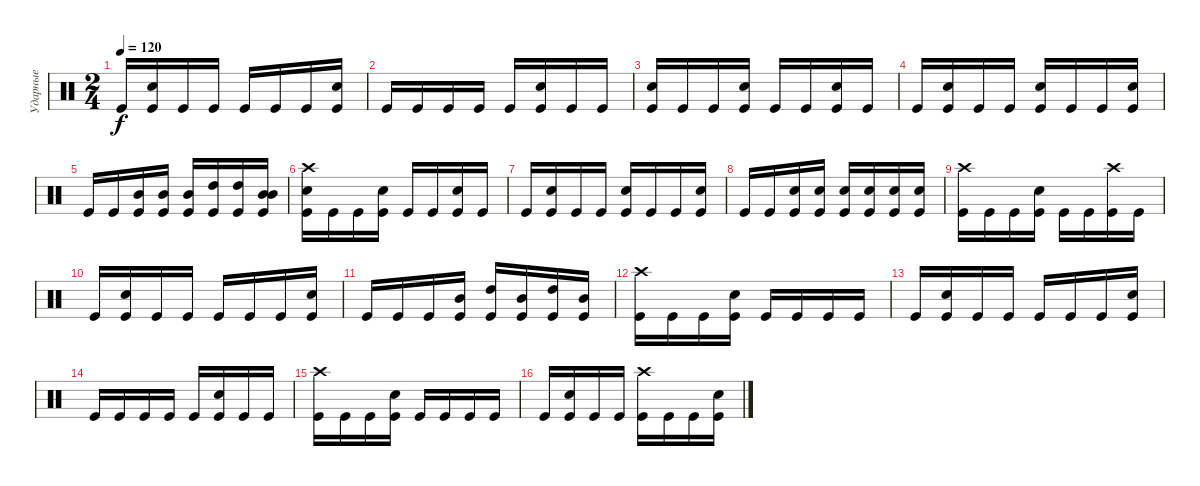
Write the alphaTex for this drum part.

\track ("Ударные" "Ударные") {instrument percussion}
\staff {score}
\articulation defaults
\ts (2 4)
\tempo 120
\clef neutral
\ks c "Kick (hit)".16{dy f}
("Electric Snare (hit)" "Kick (hit)").16 "Kick (hit)".16 "Kick (hit)".16 "Kick (hit)".16 "Kick (hit)".16 "Kick (hit)".16 ("Electric Snare (hit)" "Kick (hit)").16 |
"Kick (hit)".16 "Kick (hit)".16 "Kick (hit)".16 "Kick (hit)".16 "Kick (hit)".16 ("Electric Snare (hit)" "Kick (hit)").16 "Kick (hit)".16 "Kick (hit)".16 |
("Electric Snare (hit)" "Kick (hit)").16 "Kick (hit)".16 "Kick (hit)".16 ("Electric Snare (hit)" "Kick (hit)").16 "Kick (hit)".16 "Kick (hit)".16 ("Electric Snare (hit)" "Kick (hit)").16 "Kick (hit)".16 |
"Kick (hit)".16 ("Electric Snare (hit)" "Kick (hit)").16 "Kick (hit)".16 "Kick (hit)".16 ("Electric Snare (hit)" "Kick (hit)").16 "Kick (hit)".16 "Kick (hit)".16 ("Electric Snare (hit)" "Kick (hit)").16 |
"Kick (hit)".16 "Kick (hit)".16 ("Mid Tom (hit)" "Kick (hit)").16 ("Mid Tom (hit)" "Kick (hit)").16 ("Mid Tom (hit)" "Kick (hit)").16 ("High Tom (hit)" "Kick (hit)").16 ("High Tom (hit)" "Kick (hit)").16 ("Mid Tom (hit)" "Mid Tom (hit)" "Kick (hit)").16 |
("Crash high (hit)" "Electric Snare (hit)" "Kick (hit)").16 "Kick (hit)".16 "Kick (hit)".16 ("Electric Snare (hit)" "Kick (hit)").16 "Kick (hit)".16 "Kick (hit)".16 ("Electric Snare (hit)" "Kick (hit)").16 "Kick (hit)".16 |
"Kick (hit)".16 ("Electric Snare (hit)" "Kick (hit)").16 "Kick (hit)".16 "Kick (hit)".16 ("Electric Snare (hit)" "Kick (hit)").16 "Kick (hit)".16 "Kick (hit)".16 ("Electric Snare (hit)" "Kick (hit)").16 |
"Kick (hit)".16 "Kick (hit)".16 ("Electric Snare (hit)" "Kick (hit)").16 ("Electric Snare (hit)" "Kick (hit)").16 ("Electric Snare (hit)" "Kick (hit)").16 ("Electric Snare (hit)" "Kick (hit)").16 ("Electric Snare (hit)" "Kick (hit)").16 ("Electric Snare (hit)" "Kick (hit)").16 |
("Crash high (hit)" "Kick (hit)").16 "Kick (hit)".16 "Kick (hit)".16 ("Electric Snare (hit)" "Kick (hit)").16 "Kick (hit)".16 "Kick (hit)".16 ("Crash high (hit)" "Kick (hit)").16 "Kick (hit)".16 |
"Kick (hit)".16 ("Electric Snare (hit)" "Kick (hit)").16 "Kick (hit)".16 "Kick (hit)".16 "Kick (hit)".16 "Kick (hit)".16 "Kick (hit)".16 ("Electric Snare (hit)" "Kick (hit)").16 |
"Kick (hit)".16 "Kick (hit)".16 "Kick (hit)".16 ("Mid Tom (hit)" "Kick (hit)").16 ("High Tom (hit)" "Kick (hit)").16 ("Mid Tom (hit)" "Kick (hit)").16 ("High Tom (hit)" "Kick (hit)").16 ("Mid Tom (hit)" "Kick (hit)").16 |
("Crash high (hit)" "Kick (hit)").16 "Kick (hit)".16 "Kick (hit)".16 ("Electric Snare (hit)" "Kick (hit)").16 "Kick (hit)".16 "Kick (hit)".16 "Kick (hit)".16 "Kick (hit)".16 |
"Kick (hit)".16 ("Electric Snare (hit)" "Kick (hit)").16 "Kick (hit)".16 "Kick (hit)".16 "Kick (hit)".16 "Kick (hit)".16 "Kick (hit)".16 ("Electric Snare (hit)" "Kick (hit)").16 |
"Kick (hit)".16 "Kick (hit)".16 "Kick (hit)".16 "Kick (hit)".16 "Kick (hit)".16 ("Electric Snare (hit)" "Kick (hit)").16 "Kick (hit)".16 "Kick (hit)".16 |
("Crash high (hit)" "Kick (hit)").16 "Kick (hit)".16 "Kick (hit)".16 ("Electric Snare (hit)" "Kick (hit)").16 "Kick (hit)".16 "Kick (hit)".16 "Kick (hit)".16 "Kick (hit)".16 |
"Kick (hit)".16 ("Electric Snare (hit)" "Kick (hit)").16 "Kick (hit)".16 "Kick (hit)".16 ("Crash high (hit)" "Kick (hit)").16 "Kick (hit)".16 "Kick (hit)".16 ("Electric Snare (hit)" "Kick (hit)").16
